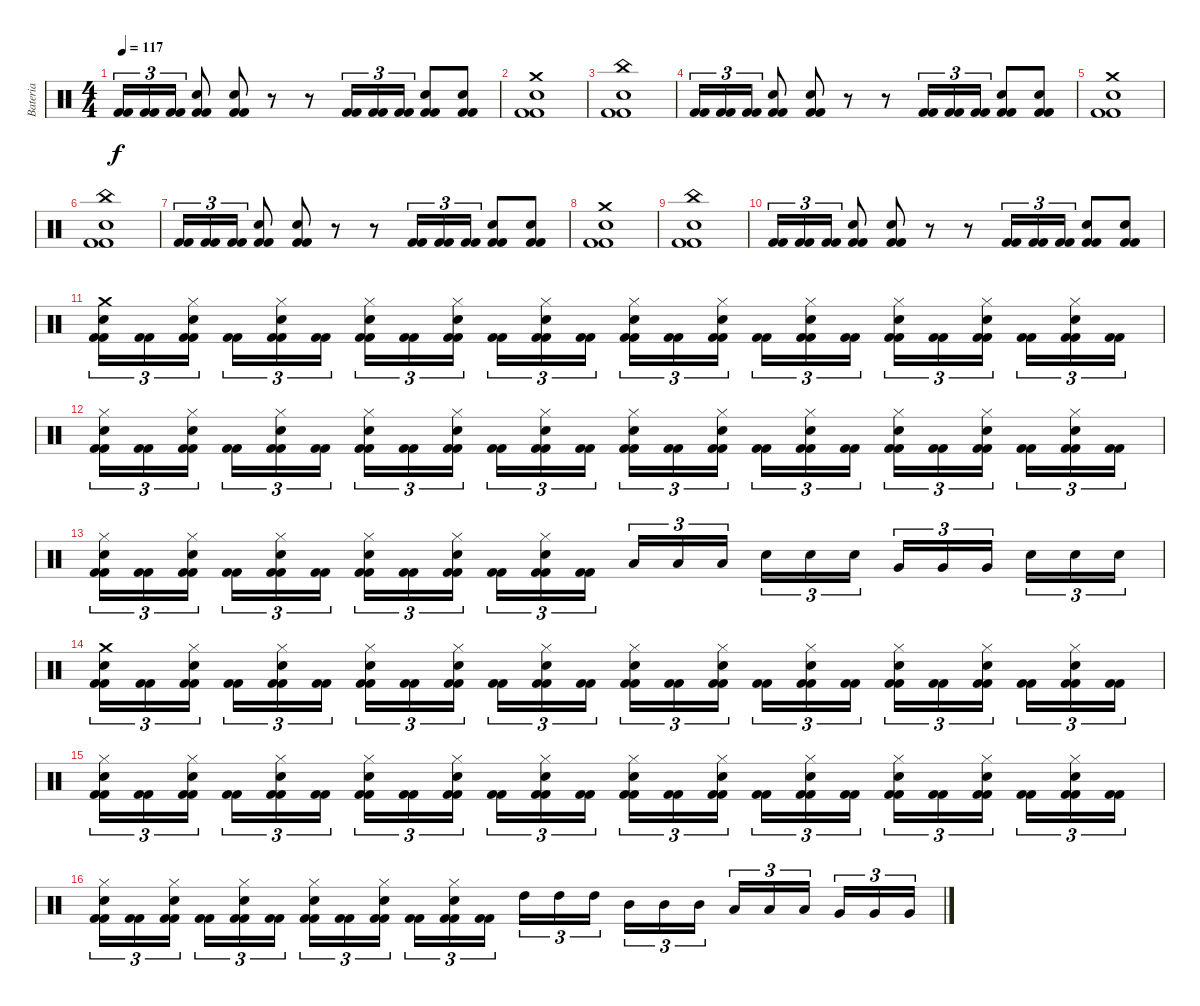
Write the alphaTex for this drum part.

\track ("Bateria" "Bateria") {instrument percussion}
\staff {score}
\articulation defaults
\ts (4 4)
\tempo 117
\clef neutral
\ks c
("Kick (hit) 2" "Kick (hit) 2").16{tu (3 2) dy f} ("Kick (hit) 2" "Kick (hit) 2").16{tu (3 2)} ("Kick (hit) 2" "Kick (hit) 2").16{tu (3 2)} ("Kick (hit) 2" "Kick (hit) 2" "Snare (hit) 2").8 ("Kick (hit) 2" "Kick (hit) 2" "Snare (hit) 2").8 r.8 r.8 ("Kick (hit) 2" "Kick (hit) 2").16{tu (3 2)} ("Kick (hit) 2" "Kick (hit) 2").16{tu (3 2)} ("Kick (hit) 2" "Kick (hit) 2").16{tu (3 2)} ("Kick (hit) 2" "Kick (hit) 2" "Snare (hit) 2").8 ("Kick (hit) 2" "Kick (hit) 2" "Snare (hit) 2").8 |
("Kick (hit) 2" "Kick (hit) 2" "Snare (hit) 2" "Crash medium (hit)").1 |
("Kick (hit) 2" "Kick (hit) 2" "Snare (hit) 2" "China (hit)").1 |
("Kick (hit) 2" "Kick (hit) 2").16{tu (3 2)} ("Kick (hit) 2" "Kick (hit) 2").16{tu (3 2)} ("Kick (hit) 2" "Kick (hit) 2").16{tu (3 2)} ("Kick (hit) 2" "Kick (hit) 2" "Snare (hit) 2").8 ("Kick (hit) 2" "Kick (hit) 2" "Snare (hit) 2").8 r.8 r.8 ("Kick (hit) 2" "Kick (hit) 2").16{tu (3 2)} ("Kick (hit) 2" "Kick (hit) 2").16{tu (3 2)} ("Kick (hit) 2" "Kick (hit) 2").16{tu (3 2)} ("Kick (hit) 2" "Kick (hit) 2" "Snare (hit) 2").8 ("Kick (hit) 2" "Kick (hit) 2" "Snare (hit) 2").8 |
("Kick (hit) 2" "Kick (hit) 2" "Snare (hit) 2" "Crash medium (hit)").1 |
("Kick (hit) 2" "Kick (hit) 2" "Snare (hit) 2" "China (hit)").1 |
("Kick (hit) 2" "Kick (hit) 2").16{tu (3 2)} ("Kick (hit) 2" "Kick (hit) 2").16{tu (3 2)} ("Kick (hit) 2" "Kick (hit) 2").16{tu (3 2)} ("Kick (hit) 2" "Kick (hit) 2" "Snare (hit) 2").8 ("Kick (hit) 2" "Kick (hit) 2" "Snare (hit) 2").8 r.8 r.8 ("Kick (hit) 2" "Kick (hit) 2").16{tu (3 2)} ("Kick (hit) 2" "Kick (hit) 2").16{tu (3 2)} ("Kick (hit) 2" "Kick (hit) 2").16{tu (3 2)} ("Kick (hit) 2" "Kick (hit) 2" "Snare (hit) 2").8 ("Kick (hit) 2" "Kick (hit) 2" "Snare (hit) 2").8 |
("Kick (hit) 2" "Kick (hit) 2" "Snare (hit) 2" "Crash medium (hit)").1 |
("Kick (hit) 2" "Kick (hit) 2" "Snare (hit) 2" "China (hit)").1 |
("Kick (hit) 2" "Kick (hit) 2").16{tu (3 2)} ("Kick (hit) 2" "Kick (hit) 2").16{tu (3 2)} ("Kick (hit) 2" "Kick (hit) 2").16{tu (3 2)} ("Kick (hit) 2" "Kick (hit) 2" "Snare (hit) 2").8 ("Kick (hit) 2" "Kick (hit) 2" "Snare (hit) 2").8 r.8 r.8 ("Kick (hit) 2" "Kick (hit) 2").16{tu (3 2)} ("Kick (hit) 2" "Kick (hit) 2").16{tu (3 2)} ("Kick (hit) 2" "Kick (hit) 2").16{tu (3 2)} ("Kick (hit) 2" "Kick (hit) 2" "Snare (hit) 2").8 ("Kick (hit) 2" "Kick (hit) 2" "Snare (hit) 2").8 |
("Kick (hit) 2" "Kick (hit) 2" "Snare (hit) 2" "Crash medium (hit)").16{tu (3 2)} ("Kick (hit) 2" "Kick (hit) 2").16{tu (3 2)} ("Kick (hit) 2" "Kick (hit) 2" "Snare (hit) 2" "Hi-Hat (closed)").16{tu (3 2)} ("Kick (hit) 2" "Kick (hit) 2").16{tu (3 2)} ("Kick (hit) 2" "Kick (hit) 2" "Snare (hit) 2" "Hi-Hat (closed)").16{tu (3 2)} ("Kick (hit) 2" "Kick (hit) 2").16{tu (3 2)} ("Kick (hit) 2" "Kick (hit) 2" "Snare (hit) 2" "Hi-Hat (closed)").16{tu (3 2)} ("Kick (hit) 2" "Kick (hit) 2").16{tu (3 2)} ("Kick (hit) 2" "Kick (hit) 2" "Snare (hit) 2" "Hi-Hat (closed)").16{tu (3 2)} ("Kick (hit) 2" "Kick (hit) 2").16{tu (3 2)} ("Kick (hit) 2" "Kick (hit) 2" "Snare (hit) 2" "Hi-Hat (closed)").16{tu (3 2)} ("Kick (hit) 2" "Kick (hit) 2").16{tu (3 2)} ("Kick (hit) 2" "Kick (hit) 2" "Snare (hit) 2" "Hi-Hat (closed)").16{tu (3 2)} ("Kick (hit) 2" "Kick (hit) 2").16{tu (3 2)} ("Kick (hit) 2" "Kick (hit) 2" "Snare (hit) 2" "Hi-Hat (closed)").16{tu (3 2)} ("Kick (hit) 2" "Kick (hit) 2").16{tu (3 2)} ("Kick (hit) 2" "Kick (hit) 2" "Snare (hit) 2" "Hi-Hat (closed)").16{tu (3 2)} ("Kick (hit) 2" "Kick (hit) 2").16{tu (3 2)} ("Kick (hit) 2" "Kick (hit) 2" "Snare (hit) 2" "Hi-Hat (closed)").16{tu (3 2)} ("Kick (hit) 2" "Kick (hit) 2").16{tu (3 2)} ("Kick (hit) 2" "Kick (hit) 2" "Snare (hit) 2" "Hi-Hat (closed)").16{tu (3 2)} ("Kick (hit) 2" "Kick (hit) 2").16{tu (3 2)} ("Kick (hit) 2" "Kick (hit) 2" "Snare (hit) 2" "Hi-Hat (closed)").16{tu (3 2)} ("Kick (hit) 2" "Kick (hit) 2").16{tu (3 2)} |
("Kick (hit) 2" "Kick (hit) 2" "Snare (hit) 2" "Hi-Hat (closed)").16{tu (3 2)} ("Kick (hit) 2" "Kick (hit) 2").16{tu (3 2)} ("Kick (hit) 2" "Kick (hit) 2" "Snare (hit) 2" "Hi-Hat (closed)").16{tu (3 2)} ("Kick (hit) 2" "Kick (hit) 2").16{tu (3 2)} ("Kick (hit) 2" "Kick (hit) 2" "Snare (hit) 2" "Hi-Hat (closed)").16{tu (3 2)} ("Kick (hit) 2" "Kick (hit) 2").16{tu (3 2)} ("Kick (hit) 2" "Kick (hit) 2" "Snare (hit) 2" "Hi-Hat (closed)").16{tu (3 2)} ("Kick (hit) 2" "Kick (hit) 2").16{tu (3 2)} ("Kick (hit) 2" "Kick (hit) 2" "Snare (hit) 2" "Hi-Hat (closed)").16{tu (3 2)} ("Kick (hit) 2" "Kick (hit) 2").16{tu (3 2)} ("Kick (hit) 2" "Kick (hit) 2" "Snare (hit) 2" "Hi-Hat (closed)").16{tu (3 2)} ("Kick (hit) 2" "Kick (hit) 2").16{tu (3 2)} ("Kick (hit) 2" "Kick (hit) 2" "Snare (hit) 2" "Hi-Hat (closed)").16{tu (3 2)} ("Kick (hit) 2" "Kick (hit) 2").16{tu (3 2)} ("Kick (hit) 2" "Kick (hit) 2" "Snare (hit) 2" "Hi-Hat (closed)").16{tu (3 2)} ("Kick (hit) 2" "Kick (hit) 2").16{tu (3 2)} ("Kick (hit) 2" "Kick (hit) 2" "Snare (hit) 2" "Hi-Hat (closed)").16{tu (3 2)} ("Kick (hit) 2" "Kick (hit) 2").16{tu (3 2)} ("Kick (hit) 2" "Kick (hit) 2" "Snare (hit) 2" "Hi-Hat (closed)").16{tu (3 2)} ("Kick (hit) 2" "Kick (hit) 2").16{tu (3 2)} ("Kick (hit) 2" "Kick (hit) 2" "Snare (hit) 2" "Hi-Hat (closed)").16{tu (3 2)} ("Kick (hit) 2" "Kick (hit) 2").16{tu (3 2)} ("Kick (hit) 2" "Kick (hit) 2" "Snare (hit) 2" "Hi-Hat (closed)").16{tu (3 2)} ("Kick (hit) 2" "Kick (hit) 2").16{tu (3 2)} |
("Kick (hit) 2" "Kick (hit) 2" "Snare (hit) 2" "Hi-Hat (closed)").16{tu (3 2)} ("Kick (hit) 2" "Kick (hit) 2").16{tu (3 2)} ("Kick (hit) 2" "Kick (hit) 2" "Snare (hit) 2" "Hi-Hat (closed)").16{tu (3 2)} ("Kick (hit) 2" "Kick (hit) 2").16{tu (3 2)} ("Kick (hit) 2" "Kick (hit) 2" "Snare (hit) 2" "Hi-Hat (closed)").16{tu (3 2)} ("Kick (hit) 2" "Kick (hit) 2").16{tu (3 2)} ("Kick (hit) 2" "Kick (hit) 2" "Snare (hit) 2" "Hi-Hat (closed)").16{tu (3 2)} ("Kick (hit) 2" "Kick (hit) 2").16{tu (3 2)} ("Kick (hit) 2" "Kick (hit) 2" "Snare (hit) 2" "Hi-Hat (closed)").16{tu (3 2)} ("Kick (hit) 2" "Kick (hit) 2").16{tu (3 2)} ("Kick (hit) 2" "Kick (hit) 2" "Snare (hit) 2" "Hi-Hat (closed)").16{tu (3 2)} ("Kick (hit) 2" "Kick (hit) 2").16{tu (3 2)} "Low Tom (hit)".16{tu (3 2)} "Low Tom (hit)".16{tu (3 2)} "Low Tom (hit)".16{tu (3 2)} "Snare (hit) 2".16{tu (3 2)} "Snare (hit) 2".16{tu (3 2)} "Snare (hit) 2".16{tu (3 2)} "Very Low Tom (hit)".16{tu (3 2)} "Very Low Tom (hit)".16{tu (3 2)} "Very Low Tom (hit)".16{tu (3 2)} "Snare (hit) 2".16{tu (3 2)} "Snare (hit) 2".16{tu (3 2)} "Snare (hit) 2".16{tu (3 2)} |
("Kick (hit) 2" "Kick (hit) 2" "Snare (hit) 2" "Crash medium (hit)").16{tu (3 2)} ("Kick (hit) 2" "Kick (hit) 2").16{tu (3 2)} ("Kick (hit) 2" "Kick (hit) 2" "Snare (hit) 2" "Hi-Hat (closed)").16{tu (3 2)} ("Kick (hit) 2" "Kick (hit) 2").16{tu (3 2)} ("Kick (hit) 2" "Kick (hit) 2" "Snare (hit) 2" "Hi-Hat (closed)").16{tu (3 2)} ("Kick (hit) 2" "Kick (hit) 2").16{tu (3 2)} ("Kick (hit) 2" "Kick (hit) 2" "Snare (hit) 2" "Hi-Hat (closed)").16{tu (3 2)} ("Kick (hit) 2" "Kick (hit) 2").16{tu (3 2)} ("Kick (hit) 2" "Kick (hit) 2" "Snare (hit) 2" "Hi-Hat (closed)").16{tu (3 2)} ("Kick (hit) 2" "Kick (hit) 2").16{tu (3 2)} ("Kick (hit) 2" "Kick (hit) 2" "Snare (hit) 2" "Hi-Hat (closed)").16{tu (3 2)} ("Kick (hit) 2" "Kick (hit) 2").16{tu (3 2)} ("Kick (hit) 2" "Kick (hit) 2" "Snare (hit) 2" "Hi-Hat (closed)").16{tu (3 2)} ("Kick (hit) 2" "Kick (hit) 2").16{tu (3 2)} ("Kick (hit) 2" "Kick (hit) 2" "Snare (hit) 2" "Hi-Hat (closed)").16{tu (3 2)} ("Kick (hit) 2" "Kick (hit) 2").16{tu (3 2)} ("Kick (hit) 2" "Kick (hit) 2" "Snare (hit) 2" "Hi-Hat (closed)").16{tu (3 2)} ("Kick (hit) 2" "Kick (hit) 2").16{tu (3 2)} ("Kick (hit) 2" "Kick (hit) 2" "Snare (hit) 2" "Hi-Hat (closed)").16{tu (3 2)} ("Kick (hit) 2" "Kick (hit) 2").16{tu (3 2)} ("Kick (hit) 2" "Kick (hit) 2" "Snare (hit) 2" "Hi-Hat (closed)").16{tu (3 2)} ("Kick (hit) 2" "Kick (hit) 2").16{tu (3 2)} ("Kick (hit) 2" "Kick (hit) 2" "Snare (hit) 2" "Hi-Hat (closed)").16{tu (3 2)} ("Kick (hit) 2" "Kick (hit) 2").16{tu (3 2)} |
("Kick (hit) 2" "Kick (hit) 2" "Snare (hit) 2" "Hi-Hat (closed)").16{tu (3 2)} ("Kick (hit) 2" "Kick (hit) 2").16{tu (3 2)} ("Kick (hit) 2" "Kick (hit) 2" "Snare (hit) 2" "Hi-Hat (closed)").16{tu (3 2)} ("Kick (hit) 2" "Kick (hit) 2").16{tu (3 2)} ("Kick (hit) 2" "Kick (hit) 2" "Snare (hit) 2" "Hi-Hat (closed)").16{tu (3 2)} ("Kick (hit) 2" "Kick (hit) 2").16{tu (3 2)} ("Kick (hit) 2" "Kick (hit) 2" "Snare (hit) 2" "Hi-Hat (closed)").16{tu (3 2)} ("Kick (hit) 2" "Kick (hit) 2").16{tu (3 2)} ("Kick (hit) 2" "Kick (hit) 2" "Snare (hit) 2" "Hi-Hat (closed)").16{tu (3 2)} ("Kick (hit) 2" "Kick (hit) 2").16{tu (3 2)} ("Kick (hit) 2" "Kick (hit) 2" "Snare (hit) 2" "Hi-Hat (closed)").16{tu (3 2)} ("Kick (hit) 2" "Kick (hit) 2").16{tu (3 2)} ("Kick (hit) 2" "Kick (hit) 2" "Snare (hit) 2" "Hi-Hat (closed)").16{tu (3 2)} ("Kick (hit) 2" "Kick (hit) 2").16{tu (3 2)} ("Kick (hit) 2" "Kick (hit) 2" "Snare (hit) 2" "Hi-Hat (closed)").16{tu (3 2)} ("Kick (hit) 2" "Kick (hit) 2").16{tu (3 2)} ("Kick (hit) 2" "Kick (hit) 2" "Snare (hit) 2" "Hi-Hat (closed)").16{tu (3 2)} ("Kick (hit) 2" "Kick (hit) 2").16{tu (3 2)} ("Kick (hit) 2" "Kick (hit) 2" "Snare (hit) 2" "Hi-Hat (closed)").16{tu (3 2)} ("Kick (hit) 2" "Kick (hit) 2").16{tu (3 2)} ("Kick (hit) 2" "Kick (hit) 2" "Snare (hit) 2" "Hi-Hat (closed)").16{tu (3 2)} ("Kick (hit) 2" "Kick (hit) 2").16{tu (3 2)} ("Kick (hit) 2" "Kick (hit) 2" "Snare (hit) 2" "Hi-Hat (closed)").16{tu (3 2)} ("Kick (hit) 2" "Kick (hit) 2").16{tu (3 2)} |
("Kick (hit) 2" "Kick (hit) 2" "Snare (hit) 2" "Hi-Hat (closed)").16{tu (3 2)} ("Kick (hit) 2" "Kick (hit) 2").16{tu (3 2)} ("Kick (hit) 2" "Kick (hit) 2" "Snare (hit) 2" "Hi-Hat (closed)").16{tu (3 2)} ("Kick (hit) 2" "Kick (hit) 2").16{tu (3 2)} ("Kick (hit) 2" "Kick (hit) 2" "Snare (hit) 2" "Hi-Hat (closed)").16{tu (3 2)} ("Kick (hit) 2" "Kick (hit) 2").16{tu (3 2)} ("Kick (hit) 2" "Kick (hit) 2" "Snare (hit) 2" "Hi-Hat (closed)").16{tu (3 2)} ("Kick (hit) 2" "Kick (hit) 2").16{tu (3 2)} ("Kick (hit) 2" "Kick (hit) 2" "Snare (hit) 2" "Hi-Hat (closed)").16{tu (3 2)} ("Kick (hit) 2" "Kick (hit) 2").16{tu (3 2)} ("Kick (hit) 2" "Kick (hit) 2" "Snare (hit) 2" "Hi-Hat (closed)").16{tu (3 2)} ("Kick (hit) 2" "Kick (hit) 2").16{tu (3 2)} "High Tom (hit)".16{tu (3 2)} "High Tom (hit)".16{tu (3 2)} "High Tom (hit)".16{tu (3 2)} "Mid Tom (hit)".16{tu (3 2)} "Mid Tom (hit)".16{tu (3 2)} "Mid Tom (hit)".16{tu (3 2)} "Low Tom (hit)".16{tu (3 2)} "Low Tom (hit)".16{tu (3 2)} "Low Tom (hit)".16{tu (3 2)} "Very Low Tom (hit)".16{tu (3 2)} "Very Low Tom (hit)".16{tu (3 2)} "Very Low Tom (hit)".16{tu (3 2)}
